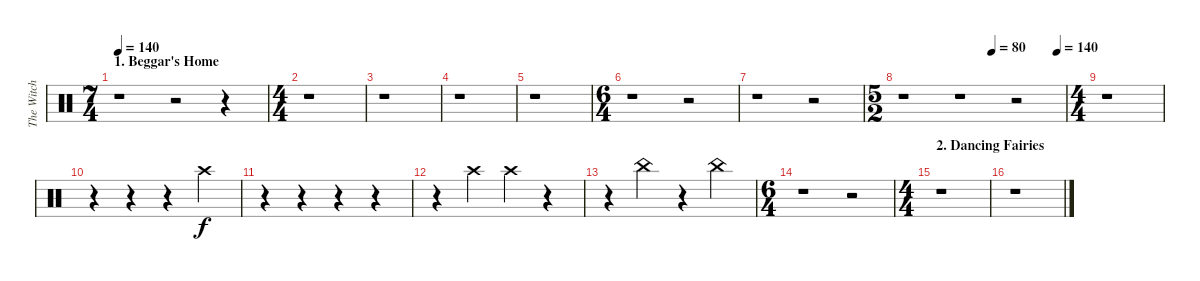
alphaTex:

\track ("The Witch" "The Witch") {instrument percussion}
\staff {score}
\articulation defaults
\ts (7 4)
\section ("" "1. Beggar's Home")
\tempo 140
\clef neutral
\ks c
r.1{dy f} r.2 r.4 |
\ts (4 4)
r.1 |
r.1 |
r.1 |
r.1 |
\ts (6 4)
r.1 r.2 |
r.1 r.2 |
\ts (5 2)
\tempo (80 0.55)
\tempo (140 0.95)
r.1 r.1 r.2 |
\ts (4 4)
r.1 |
r.4 r.4 r.4 "Crash high (hit)".4 |
r.4 r.4 r.4 r.4 |
r.4 "Crash high (hit)".4 "Crash high (hit)".4 r.4 |
r.4 "China (hit)".4 r.4 "China (hit)".4 |
\ts (6 4)
r.1 r.2 |
\ts (4 4)
\section ("" "2. Dancing Fairies")
r.1 |
r.1
